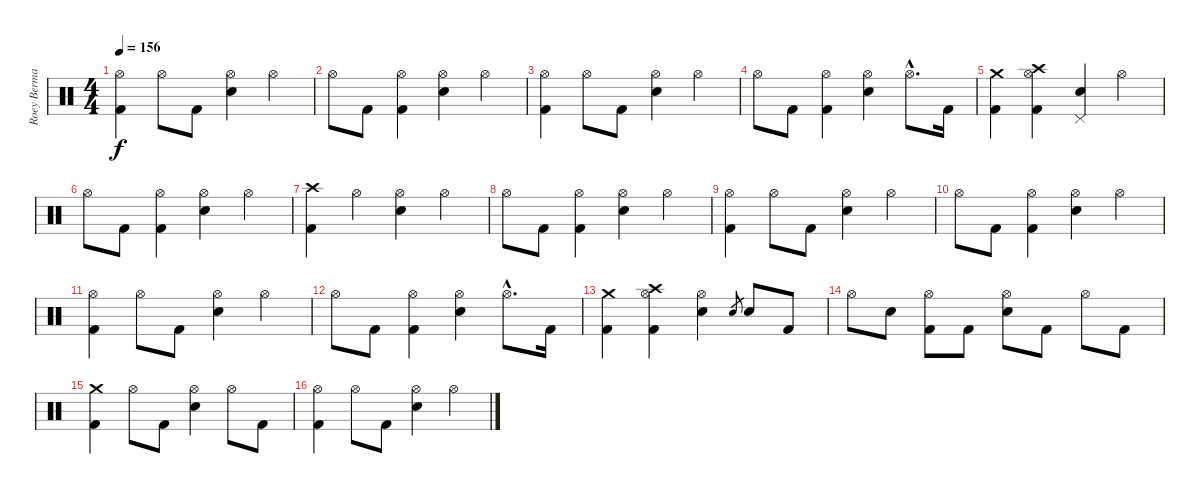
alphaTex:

\track ("Roey Berman" "Roey Berma") {instrument percussion}
\staff {score}
\articulation defaults
\ts (4 4)
\tempo 156
\clef neutral
\ks c
("Hi-Hat (open)" "Kick (hit) 2").4{dy f} "Hi-Hat (open)".8 "Kick (hit) 2".8 ("Hi-Hat (open)" "Electric Snare (hit)").4 "Hi-Hat (open)".4 |
"Hi-Hat (open)".8 "Kick (hit) 2".8 ("Hi-Hat (open)" "Kick (hit) 2").4 ("Hi-Hat (open)" "Electric Snare (hit)").4 "Hi-Hat (open)".4 |
("Hi-Hat (open)" "Kick (hit) 2").4 "Hi-Hat (open)".8 "Kick (hit) 2".8 ("Hi-Hat (open)" "Electric Snare (hit)").4 "Hi-Hat (open)".4 |
"Hi-Hat (open)".8 "Kick (hit) 2".8 ("Hi-Hat (open)" "Kick (hit) 2").4 ("Hi-Hat (open)" "Electric Snare (hit)").4 "Hi-Hat (open)"{hac}.8{d} "Kick (hit) 2".16 |
("Crash medium (hit)" "Kick (hit) 2").4 ("Crash high (hit)" "Hi-Hat (open)" "Kick (hit) 2").4 ("Pedal Hi-Hat (hit)" "Electric Snare (hit)").4 "Hi-Hat (open)".4 |
"Hi-Hat (open)".8 "Kick (hit) 2".8 ("Hi-Hat (open)" "Kick (hit) 2").4 ("Hi-Hat (open)" "Electric Snare (hit)").4 "Hi-Hat (open)".4 |
("Crash high (hit)" "Kick (hit) 2").4 "Hi-Hat (open)".4 ("Hi-Hat (open)" "Electric Snare (hit)").4 "Hi-Hat (open)".4 |
"Hi-Hat (open)".8 "Kick (hit) 2".8 ("Hi-Hat (open)" "Kick (hit) 2").4 ("Hi-Hat (open)" "Electric Snare (hit)").4 "Hi-Hat (open)".4 |
("Hi-Hat (open)" "Kick (hit) 2").4 "Hi-Hat (open)".8 "Kick (hit) 2".8 ("Hi-Hat (open)" "Electric Snare (hit)").4 "Hi-Hat (open)".4 |
"Hi-Hat (open)".8 "Kick (hit) 2".8 ("Hi-Hat (open)" "Kick (hit) 2").4 ("Hi-Hat (open)" "Electric Snare (hit)").4 "Hi-Hat (open)".4 |
("Hi-Hat (open)" "Kick (hit) 2").4 "Hi-Hat (open)".8 "Kick (hit) 2".8 ("Hi-Hat (open)" "Electric Snare (hit)").4 "Hi-Hat (open)".4 |
"Hi-Hat (open)".8 "Kick (hit) 2".8 ("Hi-Hat (open)" "Kick (hit) 2").4 ("Hi-Hat (open)" "Electric Snare (hit)").4 "Hi-Hat (open)"{hac}.8{d} "Kick (hit) 2".16 |
("Crash medium (hit)" "Kick (hit) 2").4 ("Crash high (hit)" "Hi-Hat (open)" "Kick (hit) 2").4 ("Hi-Hat (open)" "Electric Snare (hit)").4 "Electric Snare (hit)".8{gr} "Electric Snare (hit)".8 "Kick (hit) 2".8 |
"Hi-Hat (open)".8 "Electric Snare (hit)".8 ("Hi-Hat (open)" "Kick (hit) 2").8 "Kick (hit) 2".8 ("Hi-Hat (open)" "Electric Snare (hit)").8 "Kick (hit) 2".8 "Hi-Hat (open)".8 "Kick (hit) 2".8 |
\section ("" "")
("Crash medium (hit)" "Kick (hit) 2").4 "Hi-Hat (open)".8 "Kick (hit) 2".8 ("Hi-Hat (open)" "Electric Snare (hit)").4 "Hi-Hat (open)".8 "Kick (hit) 2".8 |
("Hi-Hat (open)" "Kick (hit) 2").4 "Hi-Hat (open)".8 "Kick (hit) 2".8 ("Hi-Hat (open)" "Electric Snare (hit)").4 "Hi-Hat (open)".4
